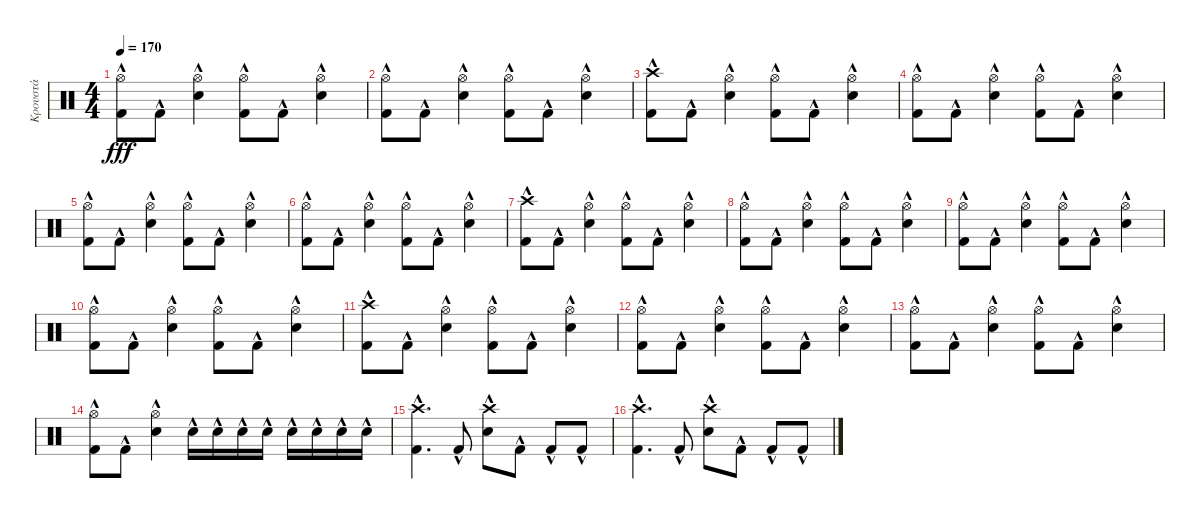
\track ("Κρουστά" "Κρουστά") {instrument percussion}
\staff {score}
\articulation defaults
\ts (4 4)
\tempo 170
\clef neutral
\ks c
("Kick (hit) 2"{hac} "Hi-Hat (open)").8{dy fff} "Kick (hit) 2"{hac}.8 ("Electric Snare (hit)"{hac} "Hi-Hat (open)").4 ("Kick (hit) 2"{hac} "Hi-Hat (open)").8 "Kick (hit) 2"{hac}.8 ("Electric Snare (hit)"{hac} "Hi-Hat (open)").4 |
("Kick (hit) 2"{hac} "Hi-Hat (open)").8 "Kick (hit) 2"{hac}.8 ("Electric Snare (hit)"{hac} "Hi-Hat (open)").4 ("Kick (hit) 2"{hac} "Hi-Hat (open)").8 "Kick (hit) 2"{hac}.8 ("Electric Snare (hit)"{hac} "Hi-Hat (open)").4 |
("Kick (hit) 2"{hac} "Crash high (hit)").8 "Kick (hit) 2"{hac}.8 ("Electric Snare (hit)"{hac} "Hi-Hat (open)").4 ("Kick (hit) 2"{hac} "Hi-Hat (open)").8 "Kick (hit) 2"{hac}.8 ("Electric Snare (hit)"{hac} "Hi-Hat (open)").4 |
("Kick (hit) 2"{hac} "Hi-Hat (open)").8 "Kick (hit) 2"{hac}.8 ("Electric Snare (hit)"{hac} "Hi-Hat (open)").4 ("Kick (hit) 2"{hac} "Hi-Hat (open)").8 "Kick (hit) 2"{hac}.8 ("Electric Snare (hit)"{hac} "Hi-Hat (open)").4 |
("Kick (hit) 2"{hac} "Hi-Hat (open)").8 "Kick (hit) 2"{hac}.8 ("Electric Snare (hit)"{hac} "Hi-Hat (open)").4 ("Kick (hit) 2"{hac} "Hi-Hat (open)").8 "Kick (hit) 2"{hac}.8 ("Electric Snare (hit)"{hac} "Hi-Hat (open)").4 |
("Kick (hit) 2"{hac} "Hi-Hat (open)").8 "Kick (hit) 2"{hac}.8 ("Electric Snare (hit)"{hac} "Hi-Hat (open)").4 ("Kick (hit) 2"{hac} "Hi-Hat (open)").8 "Kick (hit) 2"{hac}.8 ("Electric Snare (hit)"{hac} "Hi-Hat (open)").4 |
("Kick (hit) 2"{hac} "Crash high (hit)").8 "Kick (hit) 2"{hac}.8 ("Electric Snare (hit)"{hac} "Hi-Hat (open)").4 ("Kick (hit) 2"{hac} "Hi-Hat (open)").8 "Kick (hit) 2"{hac}.8 ("Electric Snare (hit)"{hac} "Hi-Hat (open)").4 |
("Kick (hit) 2"{hac} "Hi-Hat (open)").8 "Kick (hit) 2"{hac}.8 ("Electric Snare (hit)"{hac} "Hi-Hat (open)").4 ("Kick (hit) 2"{hac} "Hi-Hat (open)").8 "Kick (hit) 2"{hac}.8 ("Electric Snare (hit)"{hac} "Hi-Hat (open)").4 |
("Kick (hit) 2"{hac} "Hi-Hat (open)").8 "Kick (hit) 2"{hac}.8 ("Electric Snare (hit)"{hac} "Hi-Hat (open)").4 ("Kick (hit) 2"{hac} "Hi-Hat (open)").8 "Kick (hit) 2"{hac}.8 ("Electric Snare (hit)"{hac} "Hi-Hat (open)").4 |
("Kick (hit) 2"{hac} "Hi-Hat (open)").8 "Kick (hit) 2"{hac}.8 ("Electric Snare (hit)"{hac} "Hi-Hat (open)").4 ("Kick (hit) 2"{hac} "Hi-Hat (open)").8 "Kick (hit) 2"{hac}.8 ("Electric Snare (hit)"{hac} "Hi-Hat (open)").4 |
("Kick (hit) 2"{hac} "Crash high (hit)").8 "Kick (hit) 2"{hac}.8 ("Electric Snare (hit)"{hac} "Hi-Hat (open)").4 ("Kick (hit) 2"{hac} "Hi-Hat (open)").8 "Kick (hit) 2"{hac}.8 ("Electric Snare (hit)"{hac} "Hi-Hat (open)").4 |
("Kick (hit) 2"{hac} "Hi-Hat (open)").8 "Kick (hit) 2"{hac}.8 ("Electric Snare (hit)"{hac} "Hi-Hat (open)").4 ("Kick (hit) 2"{hac} "Hi-Hat (open)").8 "Kick (hit) 2"{hac}.8 ("Electric Snare (hit)"{hac} "Hi-Hat (open)").4 |
("Kick (hit) 2"{hac} "Hi-Hat (open)").8 "Kick (hit) 2"{hac}.8 ("Electric Snare (hit)"{hac} "Hi-Hat (open)").4 ("Kick (hit) 2"{hac} "Hi-Hat (open)").8 "Kick (hit) 2"{hac}.8 ("Electric Snare (hit)"{hac} "Hi-Hat (open)").4 |
("Kick (hit) 2"{hac} "Hi-Hat (open)").8 "Kick (hit) 2"{hac}.8 ("Electric Snare (hit)"{hac} "Hi-Hat (open)").4 "Electric Snare (hit)"{hac}.16 "Electric Snare (hit)"{hac}.16 "Electric Snare (hit)"{hac}.16 "Electric Snare (hit)"{hac}.16 "Electric Snare (hit)"{hac}.16 "Electric Snare (hit)"{hac}.16 "Electric Snare (hit)"{hac}.16 "Electric Snare (hit)"{hac}.16 |
("Kick (hit) 2"{hac} "Crash high (hit)").4{d} "Kick (hit) 2"{hac}.8 ("Electric Snare (hit)"{hac} "Crash high (hit)").8 "Kick (hit) 2"{hac}.8 "Kick (hit) 2"{hac}.8 "Kick (hit) 2"{hac}.8 |
("Kick (hit) 2"{hac} "Crash high (hit)").4{d} "Kick (hit) 2"{hac}.8 ("Electric Snare (hit)"{hac} "Crash high (hit)").8 "Kick (hit) 2"{hac}.8 "Kick (hit) 2"{hac}.8 "Kick (hit) 2"{hac}.8
